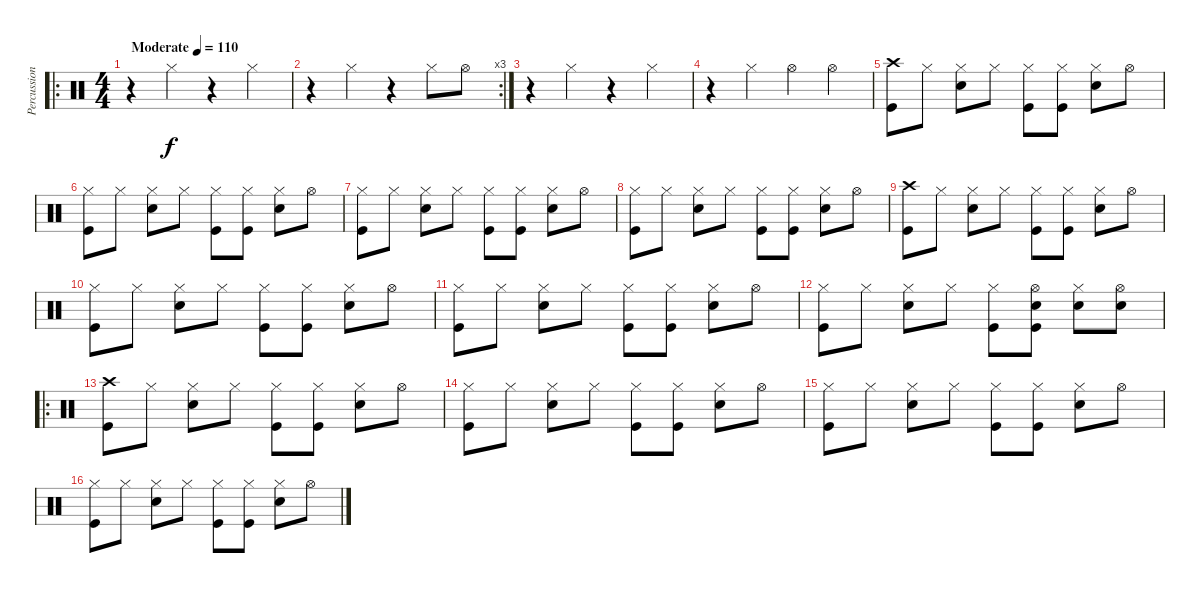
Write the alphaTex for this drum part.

\track ("Percussion" "Percussion") {instrument percussion}
\staff {score}
\articulation defaults
\ro
\ts (4 4)
\tempo (110 "Moderate")
\clef neutral
\ks c
r.4{dy f} "Hi-Hat (closed)".4 r.4 "Hi-Hat (closed)".4 |
\rc 3
r.4 "Hi-Hat (closed)".4 r.4 "Hi-Hat (closed)".8 "Hi-Hat (open)".8 |
r.4 "Hi-Hat (closed)".4 r.4 "Hi-Hat (closed)".4 |
r.4 "Hi-Hat (closed)".4 "Hi-Hat (open)".4 "Hi-Hat (open)".4 |
("Kick (hit)" "Crash high (hit)").8 "Hi-Hat (closed)".8 ("Snare (hit) 2" "Hi-Hat (closed)").8 "Hi-Hat (closed)".8 ("Kick (hit)" "Hi-Hat (closed)").8 ("Kick (hit)" "Hi-Hat (closed)").8 ("Snare (hit) 2" "Hi-Hat (closed)").8 "Hi-Hat (open)".8 |
("Kick (hit)" "Hi-Hat (closed)").8 "Hi-Hat (closed)".8 ("Snare (hit) 2" "Hi-Hat (closed)").8 "Hi-Hat (closed)".8 ("Kick (hit)" "Hi-Hat (closed)").8 ("Kick (hit)" "Hi-Hat (closed)").8 ("Snare (hit) 2" "Hi-Hat (closed)").8 "Hi-Hat (open)".8 |
("Kick (hit)" "Hi-Hat (closed)").8 "Hi-Hat (closed)".8 ("Snare (hit) 2" "Hi-Hat (closed)").8 "Hi-Hat (closed)".8 ("Kick (hit)" "Hi-Hat (closed)").8 ("Kick (hit)" "Hi-Hat (closed)").8 ("Snare (hit) 2" "Hi-Hat (closed)").8 "Hi-Hat (open)".8 |
("Kick (hit)" "Hi-Hat (closed)").8 "Hi-Hat (closed)".8 ("Snare (hit) 2" "Hi-Hat (closed)").8 "Hi-Hat (closed)".8 ("Kick (hit)" "Hi-Hat (closed)").8 ("Kick (hit)" "Hi-Hat (closed)").8 ("Snare (hit) 2" "Hi-Hat (closed)").8 "Hi-Hat (open)".8 |
("Kick (hit)" "Crash high (hit)").8 "Hi-Hat (closed)".8 ("Snare (hit) 2" "Hi-Hat (closed)").8 "Hi-Hat (closed)".8 ("Kick (hit)" "Hi-Hat (closed)").8 ("Kick (hit)" "Hi-Hat (closed)").8 ("Snare (hit) 2" "Hi-Hat (closed)").8 "Hi-Hat (open)".8 |
("Kick (hit)" "Hi-Hat (closed)").8 "Hi-Hat (closed)".8 ("Snare (hit) 2" "Hi-Hat (closed)").8 "Hi-Hat (closed)".8 ("Kick (hit)" "Hi-Hat (closed)").8 ("Kick (hit)" "Hi-Hat (closed)").8 ("Snare (hit) 2" "Hi-Hat (closed)").8 "Hi-Hat (open)".8 |
("Kick (hit)" "Hi-Hat (closed)").8 "Hi-Hat (closed)".8 ("Snare (hit) 2" "Hi-Hat (closed)").8 "Hi-Hat (closed)".8 ("Kick (hit)" "Hi-Hat (closed)").8 ("Kick (hit)" "Hi-Hat (closed)").8 ("Snare (hit) 2" "Hi-Hat (closed)").8 "Hi-Hat (open)".8 |
("Kick (hit)" "Hi-Hat (closed)").8 "Hi-Hat (closed)".8 ("Snare (hit) 2" "Hi-Hat (closed)").8 "Hi-Hat (closed)".8 ("Kick (hit)" "Hi-Hat (closed)").8 ("Kick (hit)" "Hi-Hat (open)" "Snare (hit) 2").8 ("Snare (hit) 2" "Hi-Hat (closed)").8 ("Snare (hit) 2" "Hi-Hat (open)").8 |
\ro
("Kick (hit)" "Crash high (hit)").8 "Hi-Hat (closed)".8 ("Snare (hit) 2" "Hi-Hat (closed)").8 "Hi-Hat (closed)".8 ("Kick (hit)" "Hi-Hat (closed)").8 ("Kick (hit)" "Hi-Hat (closed)").8 ("Snare (hit) 2" "Hi-Hat (closed)").8 "Hi-Hat (open)".8 |
("Kick (hit)" "Hi-Hat (closed)").8 "Hi-Hat (closed)".8 ("Snare (hit) 2" "Hi-Hat (closed)").8 "Hi-Hat (closed)".8 ("Kick (hit)" "Hi-Hat (closed)").8 ("Kick (hit)" "Hi-Hat (closed)").8 ("Snare (hit) 2" "Hi-Hat (closed)").8 "Hi-Hat (open)".8 |
("Kick (hit)" "Hi-Hat (closed)").8 "Hi-Hat (closed)".8 ("Snare (hit) 2" "Hi-Hat (closed)").8 "Hi-Hat (closed)".8 ("Kick (hit)" "Hi-Hat (closed)").8 ("Kick (hit)" "Hi-Hat (closed)").8 ("Snare (hit) 2" "Hi-Hat (closed)").8 "Hi-Hat (open)".8 |
("Kick (hit)" "Hi-Hat (closed)").8 "Hi-Hat (closed)".8 ("Snare (hit) 2" "Hi-Hat (closed)").8 "Hi-Hat (closed)".8 ("Kick (hit)" "Hi-Hat (closed)").8 ("Kick (hit)" "Hi-Hat (closed)").8 ("Snare (hit) 2" "Hi-Hat (closed)").8 "Hi-Hat (open)".8
